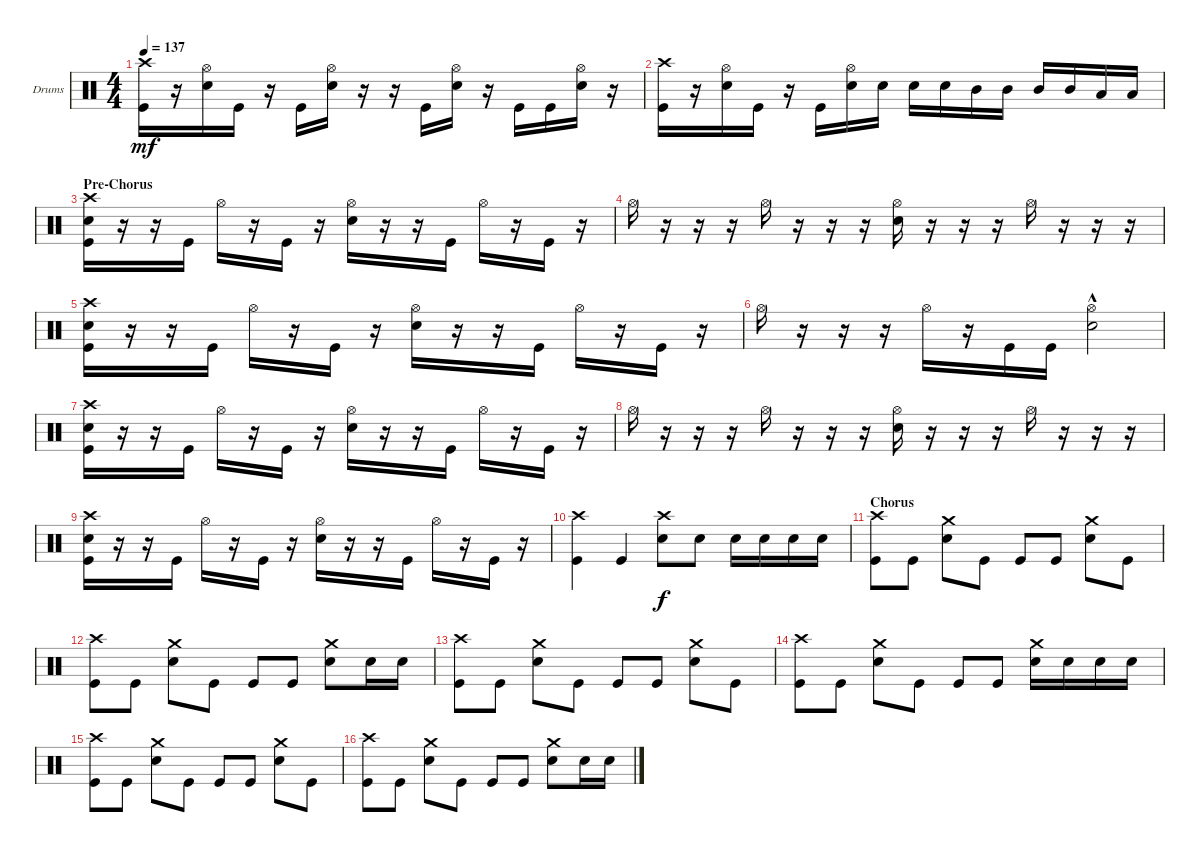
\defaultSystemsLayout 4
\bracketExtendMode groupsimilarinstruments
\firstSystemTrackNameOrientation horizontal
\otherSystemsTrackNameOrientation horizontal
\track ("Drumkit - Paul" "Drums") {instrument percussion}
\staff {score}
\articulation defaults
\ts (4 4)
\tempo 137
\clef neutral
\ks c
("Crash high (hit)" "Kick (hit)").16{dy mf} r.16 ("Snare (hit) 2" "Hi-Hat (open)").16 "Kick (hit)".16 r.16 "Kick (hit)".16 ("Snare (hit) 2" "Hi-Hat (open)").16 r.16 r.16 "Kick (hit)".16 ("Snare (hit) 2" "Hi-Hat (open)").16 r.16 "Kick (hit)".16 "Kick (hit)".16 ("Snare (hit) 2" "Hi-Hat (open)").16 r.16 |
("Crash high (hit)" "Kick (hit)").16 r.16 ("Snare (hit) 2" "Hi-Hat (open)").16 "Kick (hit)".16 r.16 "Kick (hit)".16 ("Snare (hit) 2" "Hi-Hat (open)").16 "Snare (hit) 2".16 "Snare (hit) 2".16 "Snare (hit) 2".16 "Mid Tom (hit)".16 "Mid Tom (hit)".16 "Mid Tom (hit)".16 "Mid Tom (hit)".16 "Low Tom (hit)".16 "Low Tom (hit)".16 |
\section ("" "Pre-Chorus")
("Snare (hit) 2" "Kick (hit)" "Crash high (hit)").16 r.16 r.16 "Kick (hit)".16 "Hi-Hat (open)".16 r.16 "Kick (hit)".16 r.16 ("Hi-Hat (open)" "Snare (hit) 2").16 r.16 r.16 "Kick (hit)".16 "Hi-Hat (open)".16 r.16 "Kick (hit)".16 r.16 |
"Hi-Hat (open)".16 r.16 r.16 r.16 "Hi-Hat (open)".16 r.16 r.16 r.16 ("Hi-Hat (open)" "Snare (hit) 2").16 r.16 r.16 r.16 "Hi-Hat (open)".16 r.16 r.16 r.16 |
("Snare (hit) 2" "Crash high (hit)" "Kick (hit)").16 r.16 r.16 "Kick (hit)".16 "Hi-Hat (open)".16 r.16 "Kick (hit)".16 r.16 ("Hi-Hat (open)" "Snare (hit) 2").16 r.16 r.16 "Kick (hit)".16 "Hi-Hat (open)".16 r.16 "Kick (hit)".16 r.16 |
"Hi-Hat (open)".16 r.16 r.16 r.16 "Hi-Hat (open)".16 r.16 "Kick (hit)".16 "Kick (hit)".16 ("Snare (hit) 2" "Hi-Hat (open)"{hac}).2 |
("Snare (hit) 2" "Kick (hit)" "Crash high (hit)").16 r.16 r.16 "Kick (hit)".16 "Hi-Hat (open)".16 r.16 "Kick (hit)".16 r.16 ("Hi-Hat (open)" "Snare (hit) 2").16 r.16 r.16 "Kick (hit)".16 "Hi-Hat (open)".16 r.16 "Kick (hit)".16 r.16 |
"Hi-Hat (open)".16 r.16 r.16 r.16 "Hi-Hat (open)".16 r.16 r.16 r.16 ("Hi-Hat (open)" "Snare (hit) 2").16 r.16 r.16 r.16 "Hi-Hat (open)".16 r.16 r.16 r.16 |
("Snare (hit) 2" "Crash high (hit)" "Kick (hit)").16 r.16 r.16 "Kick (hit)".16 "Hi-Hat (open)".16 r.16 "Kick (hit)".16 r.16 ("Hi-Hat (open)" "Snare (hit) 2").16 r.16 r.16 "Kick (hit)".16 "Hi-Hat (open)".16 r.16 "Kick (hit)".16 r.16 |
("Kick (hit)" "Crash high (hit)").4 "Kick (hit)".4 ("Snare (hit) 2" "Crash high (hit)").8{dy f} "Snare (hit) 2".8 "Snare (hit) 2".16 "Snare (hit) 2".16 "Snare (hit) 2".16 "Snare (hit) 2".16 |
\section ("" "Chorus")
("Kick (hit)" "Crash high (hit)").8 "Kick (hit)".8 ("Snare (hit) 2" "Crash medium (hit)").8 "Kick (hit)".8 "Kick (hit)".8 "Kick (hit)".8 ("Snare (hit) 2" "Crash medium (hit)").8 "Kick (hit)".8 |
("Kick (hit)" "Crash high (hit)").8 "Kick (hit)".8 ("Snare (hit) 2" "Crash medium (hit)").8 "Kick (hit)".8 "Kick (hit)".8 "Kick (hit)".8 ("Snare (hit) 2" "Crash medium (hit)").8 "Snare (hit) 2".16 "Snare (hit) 2".16 |
("Kick (hit)" "Crash high (hit)").8 "Kick (hit)".8 ("Snare (hit) 2" "Crash medium (hit)").8 "Kick (hit)".8 "Kick (hit)".8 "Kick (hit)".8 ("Snare (hit) 2" "Crash medium (hit)").8 "Kick (hit)".8 |
("Kick (hit)" "Crash high (hit)").8 "Kick (hit)".8 ("Snare (hit) 2" "Crash medium (hit)").8 "Kick (hit)".8 "Kick (hit)".8 "Kick (hit)".8 ("Snare (hit) 2" "Crash medium (hit)").16 "Snare (hit) 2".16 "Snare (hit) 2".16 "Snare (hit) 2".16 |
("Kick (hit)" "Crash high (hit)").8 "Kick (hit)".8 ("Snare (hit) 2" "Crash medium (hit)").8 "Kick (hit)".8 "Kick (hit)".8 "Kick (hit)".8 ("Snare (hit) 2" "Crash medium (hit)").8 "Kick (hit)".8 |
("Kick (hit)" "Crash high (hit)").8 "Kick (hit)".8 ("Snare (hit) 2" "Crash medium (hit)").8 "Kick (hit)".8 "Kick (hit)".8 "Kick (hit)".8 ("Snare (hit) 2" "Crash medium (hit)").8 "Snare (hit) 2".16 "Snare (hit) 2".16
